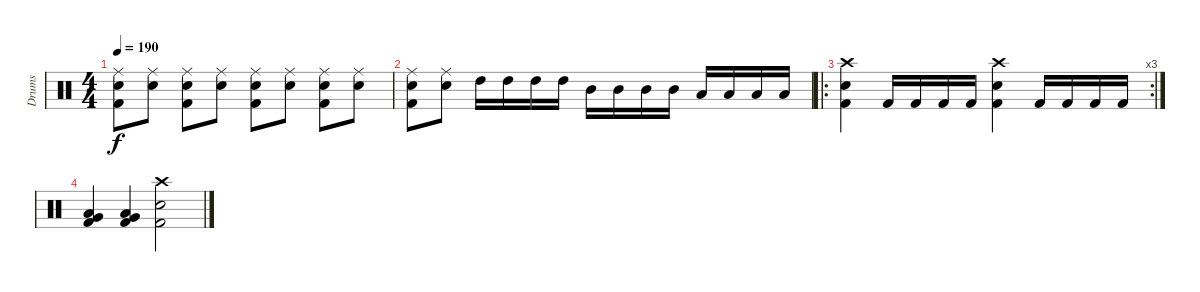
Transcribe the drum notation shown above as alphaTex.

\track ("Drums" "Drums") {instrument percussion}
\staff {score}
\articulation defaults
\ts (4 4)
\tempo 190
\clef neutral
\ks c
("Ride (middle)" "Electric Snare (hit)" "Kick (hit) 2").8{dy f} ("Ride (middle)" "Electric Snare (hit)").8 ("Ride (middle)" "Electric Snare (hit)" "Kick (hit) 2").8 ("Ride (middle)" "Electric Snare (hit)").8 ("Ride (middle)" "Electric Snare (hit)" "Kick (hit) 2").8 ("Ride (middle)" "Electric Snare (hit)").8 ("Ride (middle)" "Electric Snare (hit)" "Kick (hit) 2").8 ("Ride (middle)" "Electric Snare (hit)").8 |
("Ride (middle)" "Electric Snare (hit)" "Kick (hit) 2").8 ("Ride (middle)" "Electric Snare (hit)").8 "High Tom (hit)".16 "High Tom (hit)".16 "High Tom (hit)".16 "High Tom (hit)".16 "Mid Tom (hit)".16 "Mid Tom (hit)".16 "Mid Tom (hit)".16 "Mid Tom (hit)".16 "Low Tom (hit)".16 "Low Tom (hit)".16 "Low Tom (hit)".16 "Low Tom (hit)".16 |
\ro
\rc 3
("Crash high (hit)" "Electric Snare (hit)" "Kick (hit) 2").4 "Kick (hit) 2".16 "Kick (hit) 2".16 "Kick (hit) 2".16 "Kick (hit) 2".16 ("Crash high (hit)" "Electric Snare (hit)" "Kick (hit) 2").4 "Kick (hit) 2".16 "Kick (hit) 2".16 "Kick (hit) 2".16 "Kick (hit) 2".16 |
("Very Low Tom (hit)" "Low Floor Tom (hit)" "Kick (hit) 2").4 ("Very Low Tom (hit)" "Low Floor Tom (hit)" "Kick (hit) 2").4 ("Crash high (hit)" "Electric Snare (hit)" "Kick (hit) 2").2
